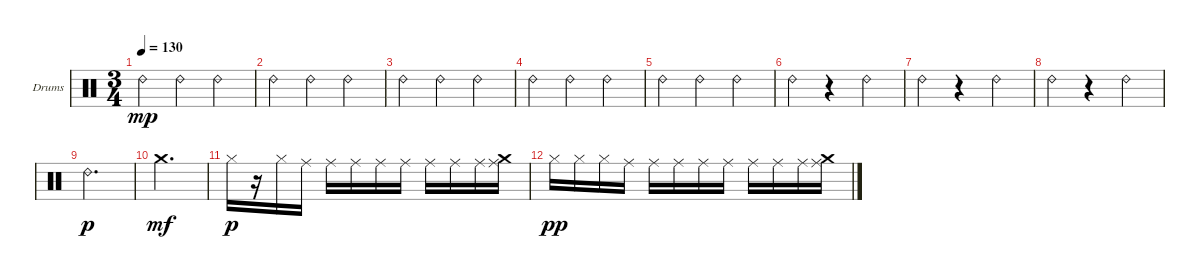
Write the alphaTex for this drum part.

\bracketExtendMode groupsimilarinstruments
\firstSystemTrackNameOrientation horizontal
\otherSystemsTrackNameOrientation horizontal
\track ("OH" "Drums") {instrument percussion}
\staff {score}
\articulation defaults
\ts (3 4)
\tempo 130
\clef neutral
\ks c "Ride (bell) 2".4{dy mp} "Ride (bell) 2".4 "Ride (bell) 2".4
|
"Ride (bell) 2".4 "Ride (bell) 2".4 "Ride (bell) 2".4 |
"Ride (bell) 2".4 "Ride (bell) 2".4 "Ride (bell) 2".4 |
"Ride (bell) 2".4 "Ride (bell) 2".4 "Ride (bell) 2".4 |
"Ride (bell) 2".4 "Ride (bell) 2".4 "Ride (bell) 2".4 |
"Ride (bell) 2".4 r.4 "Ride (bell) 2".4 |
"Ride (bell) 2".4 r.4 "Ride (bell) 2".4 |
"Ride (bell) 2".4 r.4 "Ride (bell) 2".4 |
"Ride (bell) 2".2{d dy p} |
"Crash medium (hit)".2{d dy mf} |
"Hi-Hat (closed)".16{dy p} r.16 "Hi-Hat (closed)".16 "Ride (middle)".16 "Ride (middle)".16 "Ride (middle)".16 "Ride (middle)".16 "Ride (middle)".16 "Ride (middle)".16 "Ride (middle)".16 "Ride (middle)".16 ("Ride (middle)" "Crash medium (hit)").16 |
"Hi-Hat (closed)".16{dy pp} "Hi-Hat (closed)".16 "Hi-Hat (closed)".16 "Ride (middle)".16 "Ride (middle)".16 "Ride (middle)".16 "Ride (middle)".16 "Ride (middle)".16 "Ride (middle)".16 "Ride (middle)".16 "Ride (middle)".16 ("Ride (middle)" "Crash medium (hit)").16
